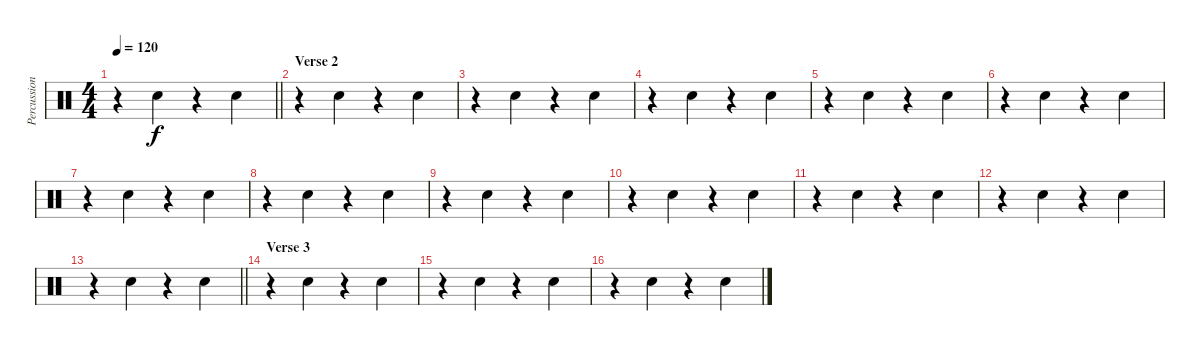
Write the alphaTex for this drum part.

\track ("Percussion" "Percussion") {instrument percussion}
\staff {score}
\articulation defaults
\ts (4 4)
\tempo 120
\clef neutral
\barLineRight lightlight
\ks c
r.4{dy f} "Snare (hit) 2".4 r.4 "Snare (hit) 2".4 |
\section ("" "Verse 2")
r.4 "Snare (hit) 2".4 r.4 "Snare (hit) 2".4 |
r.4 "Snare (hit) 2".4 r.4 "Snare (hit) 2".4 |
r.4 "Snare (hit) 2".4 r.4 "Snare (hit) 2".4 |
r.4 "Snare (hit) 2".4 r.4 "Snare (hit) 2".4 |
r.4 "Snare (hit) 2".4 r.4 "Snare (hit) 2".4 |
r.4 "Snare (hit) 2".4 r.4 "Snare (hit) 2".4 |
r.4 "Snare (hit) 2".4 r.4 "Snare (hit) 2".4 |
r.4 "Snare (hit) 2".4 r.4 "Snare (hit) 2".4 |
r.4 "Snare (hit) 2".4 r.4 "Snare (hit) 2".4 |
r.4 "Snare (hit) 2".4 r.4 "Snare (hit) 2".4 |
r.4 "Snare (hit) 2".4 r.4 "Snare (hit) 2".4 |
\barLineRight lightlight
r.4 "Snare (hit) 2".4 r.4 "Snare (hit) 2".4 |
\section ("" "Verse 3")
r.4 "Snare (hit) 2".4 r.4 "Snare (hit) 2".4 |
r.4 "Snare (hit) 2".4 r.4 "Snare (hit) 2".4 |
r.4 "Snare (hit) 2".4 r.4 "Snare (hit) 2".4
